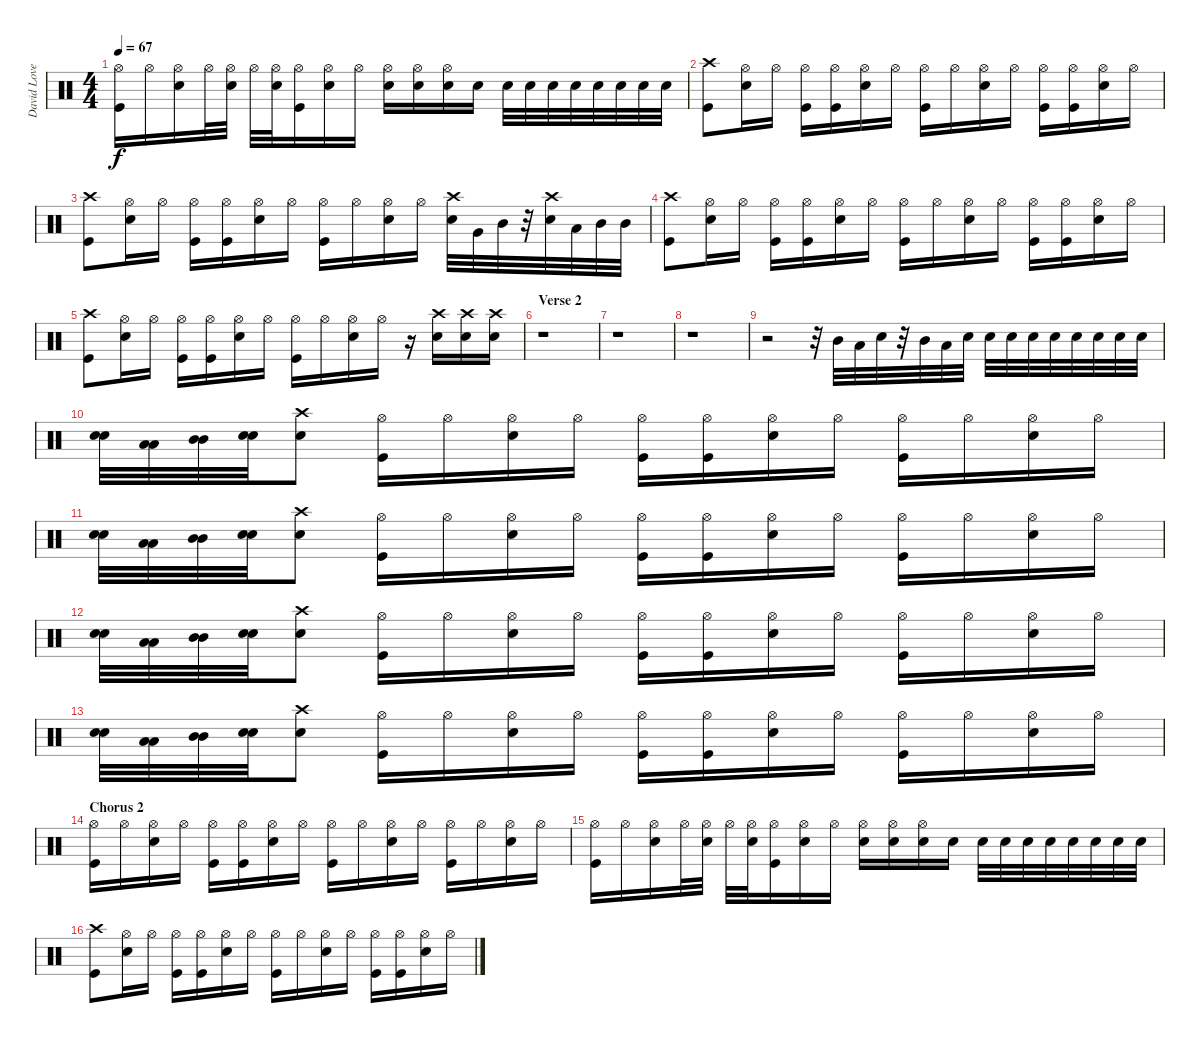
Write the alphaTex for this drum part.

\track ("David Lovering (Drums)" "David Love") {instrument percussion}
\staff {score}
\articulation defaults
\ts (4 4)
\tempo 67
\clef neutral
\ks c
("Hi-Hat (open)" "Kick (hit)").16{dy f} "Hi-Hat (open)".16 ("Hi-Hat (open)" "Snare (hit) 2").16 "Hi-Hat (open)".32 ("Hi-Hat (open)" "Snare (hit) 2").32 "Hi-Hat (open)".32 ("Hi-Hat (open)" "Snare (hit) 2").32 ("Hi-Hat (open)" "Kick (hit)").16 ("Hi-Hat (open)" "Snare (hit) 2").16 "Hi-Hat (open)".16 ("Hi-Hat (open)" "Snare (hit) 2").16 ("Hi-Hat (open)" "Snare (hit) 2").16 ("Hi-Hat (open)" "Snare (hit) 2").16 "Snare (hit) 2".16 "Snare (hit) 2".32 "Snare (hit) 2".32 "Snare (hit) 2".32 "Snare (hit) 2".32 "Snare (hit) 2".32 "Snare (hit) 2".32 "Snare (hit) 2".32 "Snare (hit) 2".32 |
("Crash high (hit)" "Kick (hit)").8 ("Hi-Hat (open)" "Snare (hit) 2").16 "Hi-Hat (open)".16 ("Hi-Hat (open)" "Kick (hit)").16 ("Hi-Hat (open)" "Kick (hit)").16 ("Hi-Hat (open)" "Snare (hit) 2").16 "Hi-Hat (open)".16 ("Hi-Hat (open)" "Kick (hit)").16 "Hi-Hat (open)".16 ("Hi-Hat (open)" "Snare (hit) 2").16 "Hi-Hat (open)".16 ("Hi-Hat (open)" "Kick (hit)").16 ("Hi-Hat (open)" "Kick (hit)").16 ("Hi-Hat (open)" "Snare (hit) 2").16 "Hi-Hat (open)".16 |
("Crash high (hit)" "Kick (hit)").8 ("Hi-Hat (open)" "Snare (hit) 2").16 "Hi-Hat (open)".16 ("Hi-Hat (open)" "Kick (hit)").16 ("Hi-Hat (open)" "Kick (hit)").16 ("Hi-Hat (open)" "Snare (hit) 2").16 "Hi-Hat (open)".16 ("Hi-Hat (open)" "Kick (hit)").16 "Hi-Hat (open)".16 ("Hi-Hat (open)" "Snare (hit) 2").16 "Hi-Hat (open)".16 ("Crash high (hit)" "Snare (hit) 2").32 "Very Low Tom (hit)".32 "Mid Tom (hit)".32 r.32 ("Crash high (hit)" "Snare (hit) 2").32 "Low Tom (hit)".32 "Mid Tom (hit)".32 "Mid Tom (hit)".32 |
("Crash high (hit)" "Kick (hit)").8 ("Hi-Hat (open)" "Snare (hit) 2").16 "Hi-Hat (open)".16 ("Hi-Hat (open)" "Kick (hit)").16 ("Hi-Hat (open)" "Kick (hit)").16 ("Hi-Hat (open)" "Snare (hit) 2").16 "Hi-Hat (open)".16 ("Hi-Hat (open)" "Kick (hit)").16 "Hi-Hat (open)".16 ("Hi-Hat (open)" "Snare (hit) 2").16 "Hi-Hat (open)".16 ("Hi-Hat (open)" "Kick (hit)").16 ("Hi-Hat (open)" "Kick (hit)").16 ("Hi-Hat (open)" "Snare (hit) 2").16 "Hi-Hat (open)".16 |
("Crash high (hit)" "Kick (hit)").8 ("Hi-Hat (open)" "Snare (hit) 2").16 "Hi-Hat (open)".16 ("Hi-Hat (open)" "Kick (hit)").16 ("Hi-Hat (open)" "Kick (hit)").16 ("Hi-Hat (open)" "Snare (hit) 2").16 "Hi-Hat (open)".16 ("Hi-Hat (open)" "Kick (hit)").16 "Hi-Hat (open)".16 ("Hi-Hat (open)" "Snare (hit) 2").16 "Hi-Hat (open)".16 r.16 ("Crash high (hit)" "Snare (hit) 2").16 ("Crash high (hit)" "Snare (hit) 2").16 ("Crash high (hit)" "Snare (hit) 2").16 |
\section ("" "Verse 2")
r.1 |
r.1 |
r.1 |
r.2 r.32 "Mid Tom (hit)".32 "Low Tom (hit)".32 "Snare (hit) 2".32 r.32 "Mid Tom (hit)".32 "Low Tom (hit)".32 "Snare (hit) 2".32 "Snare (hit) 2".32 "Snare (hit) 2".32 "Snare (hit) 2".32 "Snare (hit) 2".32 "Snare (hit) 2".32 "Snare (hit) 2".32 "Snare (hit) 2".32 "Snare (hit) 2".32 |
("Snare (hit) 2" "Snare (hit) 2").32 ("Low Tom (hit)" "Low Tom (hit)").32 ("Mid Tom (hit)" "Mid Tom (hit)").32 ("Snare (hit) 2" "Snare (hit) 2").32 ("Crash high (hit)" "Snare (hit) 2").8 ("Hi-Hat (open)" "Kick (hit)").16 "Hi-Hat (open)".16 ("Hi-Hat (open)" "Snare (hit) 2").16 "Hi-Hat (open)".16 ("Hi-Hat (open)" "Kick (hit)").16 ("Hi-Hat (open)" "Kick (hit)").16 ("Hi-Hat (open)" "Snare (hit) 2").16 "Hi-Hat (open)".16 ("Hi-Hat (open)" "Kick (hit)").16 "Hi-Hat (open)".16 ("Hi-Hat (open)" "Snare (hit) 2").16 "Hi-Hat (open)".16 |
("Snare (hit) 2" "Snare (hit) 2").32 ("Low Tom (hit)" "Low Tom (hit)").32 ("Mid Tom (hit)" "Mid Tom (hit)").32 ("Snare (hit) 2" "Snare (hit) 2").32 ("Crash high (hit)" "Snare (hit) 2").8 ("Hi-Hat (open)" "Kick (hit)").16 "Hi-Hat (open)".16 ("Hi-Hat (open)" "Snare (hit) 2").16 "Hi-Hat (open)".16 ("Hi-Hat (open)" "Kick (hit)").16 ("Hi-Hat (open)" "Kick (hit)").16 ("Hi-Hat (open)" "Snare (hit) 2").16 "Hi-Hat (open)".16 ("Hi-Hat (open)" "Kick (hit)").16 "Hi-Hat (open)".16 ("Hi-Hat (open)" "Snare (hit) 2").16 "Hi-Hat (open)".16 |
("Snare (hit) 2" "Snare (hit) 2").32 ("Low Tom (hit)" "Low Tom (hit)").32 ("Mid Tom (hit)" "Mid Tom (hit)").32 ("Snare (hit) 2" "Snare (hit) 2").32 ("Crash high (hit)" "Snare (hit) 2").8 ("Hi-Hat (open)" "Kick (hit)").16 "Hi-Hat (open)".16 ("Hi-Hat (open)" "Snare (hit) 2").16 "Hi-Hat (open)".16 ("Hi-Hat (open)" "Kick (hit)").16 ("Hi-Hat (open)" "Kick (hit)").16 ("Hi-Hat (open)" "Snare (hit) 2").16 "Hi-Hat (open)".16 ("Hi-Hat (open)" "Kick (hit)").16 "Hi-Hat (open)".16 ("Hi-Hat (open)" "Snare (hit) 2").16 "Hi-Hat (open)".16 |
("Snare (hit) 2" "Snare (hit) 2").32 ("Low Tom (hit)" "Low Tom (hit)").32 ("Mid Tom (hit)" "Mid Tom (hit)").32 ("Snare (hit) 2" "Snare (hit) 2").32 ("Crash high (hit)" "Snare (hit) 2").8 ("Hi-Hat (open)" "Kick (hit)").16 "Hi-Hat (open)".16 ("Hi-Hat (open)" "Snare (hit) 2").16 "Hi-Hat (open)".16 ("Hi-Hat (open)" "Kick (hit)").16 ("Hi-Hat (open)" "Kick (hit)").16 ("Hi-Hat (open)" "Snare (hit) 2").16 "Hi-Hat (open)".16 ("Hi-Hat (open)" "Kick (hit)").16 "Hi-Hat (open)".16 ("Hi-Hat (open)" "Snare (hit) 2").16 "Hi-Hat (open)".16 |
\section ("" "Chorus 2")
("Hi-Hat (open)" "Kick (hit)").16 "Hi-Hat (open)".16 ("Hi-Hat (open)" "Snare (hit) 2").16 "Hi-Hat (open)".16 ("Hi-Hat (open)" "Kick (hit)").16 ("Hi-Hat (open)" "Kick (hit)").16 ("Hi-Hat (open)" "Snare (hit) 2").16 "Hi-Hat (open)".16 ("Hi-Hat (open)" "Kick (hit)").16 "Hi-Hat (open)".16 ("Hi-Hat (open)" "Snare (hit) 2").16 "Hi-Hat (open)".16 ("Hi-Hat (open)" "Kick (hit)").16 "Hi-Hat (open)".16 ("Hi-Hat (open)" "Snare (hit) 2").16 "Hi-Hat (open)".16 |
("Hi-Hat (open)" "Kick (hit)").16 "Hi-Hat (open)".16 ("Hi-Hat (open)" "Snare (hit) 2").16 "Hi-Hat (open)".32 ("Hi-Hat (open)" "Snare (hit) 2").32 "Hi-Hat (open)".32 ("Hi-Hat (open)" "Snare (hit) 2").32 ("Hi-Hat (open)" "Kick (hit)").16 ("Hi-Hat (open)" "Snare (hit) 2").16 "Hi-Hat (open)".16 ("Hi-Hat (open)" "Snare (hit) 2").16 ("Hi-Hat (open)" "Snare (hit) 2").16 ("Hi-Hat (open)" "Snare (hit) 2").16 "Snare (hit) 2".16 "Snare (hit) 2".32 "Snare (hit) 2".32 "Snare (hit) 2".32 "Snare (hit) 2".32 "Snare (hit) 2".32 "Snare (hit) 2".32 "Snare (hit) 2".32 "Snare (hit) 2".32 |
("Crash high (hit)" "Kick (hit)").8 ("Hi-Hat (open)" "Snare (hit) 2").16 "Hi-Hat (open)".16 ("Hi-Hat (open)" "Kick (hit)").16 ("Hi-Hat (open)" "Kick (hit)").16 ("Hi-Hat (open)" "Snare (hit) 2").16 "Hi-Hat (open)".16 ("Hi-Hat (open)" "Kick (hit)").16 "Hi-Hat (open)".16 ("Hi-Hat (open)" "Snare (hit) 2").16 "Hi-Hat (open)".16 ("Hi-Hat (open)" "Kick (hit)").16 ("Hi-Hat (open)" "Kick (hit)").16 ("Hi-Hat (open)" "Snare (hit) 2").16 "Hi-Hat (open)".16
